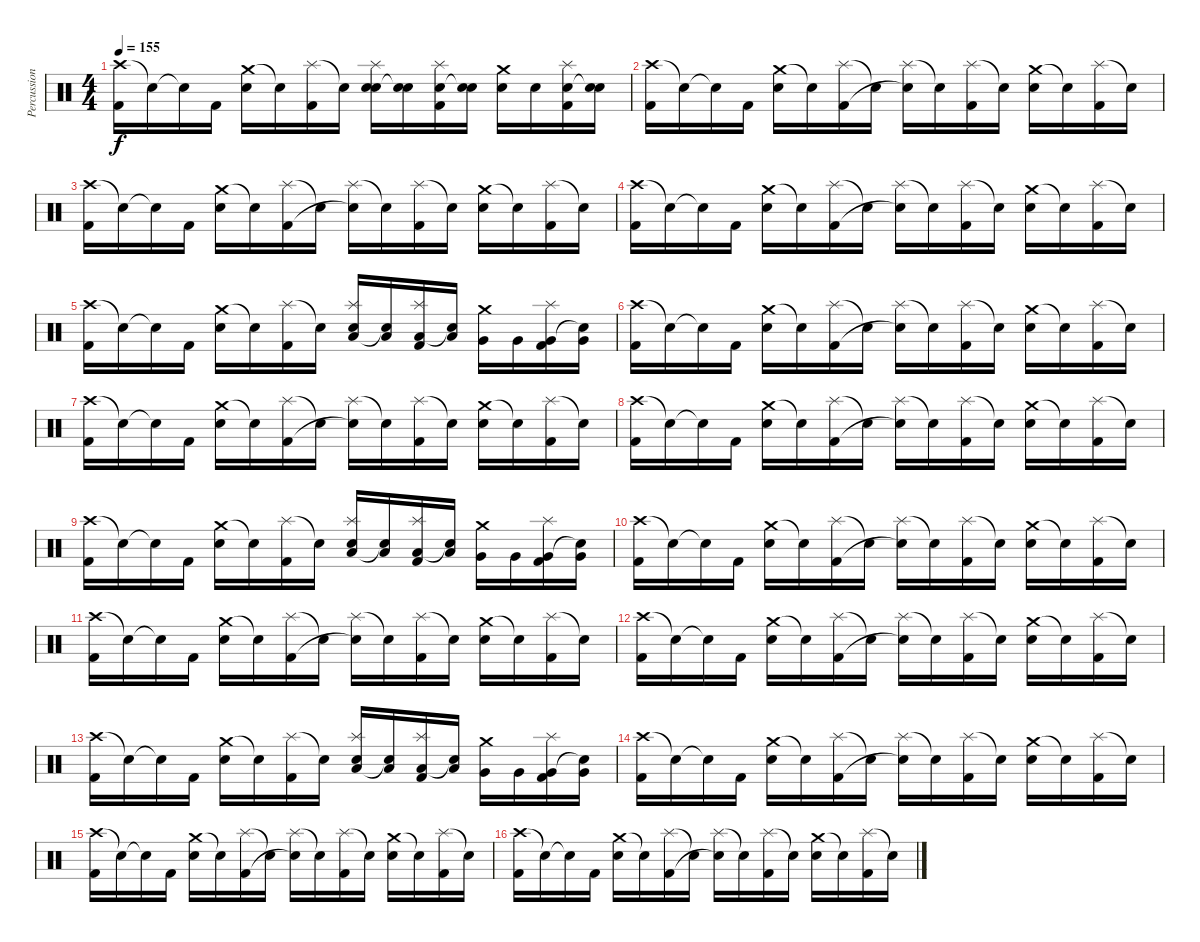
\track ("Percussion" "Percussion") {instrument percussion}
\staff {score}
\articulation defaults
\ts (4 4)
\tempo 155
\clef neutral
\ks c
("Crash high (hit)" "Kick (hit) 2").16{dy f} "Snare (hit)"{t}.16 "Snare (hit)"{t}.16 "Kick (hit) 2".16 ("Crash medium (hit)" "Snare (hit) 2").16 "Snare (hit)"{t}.16 ("Splash (hit)" "Kick (hit) 2").16 "Snare (hit)"{t}.16 ("Splash (hit)" "Snare (hit) 2" "Snare (hit)").16 ("Snare (hit) 2" "Snare (hit)"{t}).16 ("Splash (hit)" "Snare (hit) 2" "Kick (hit) 2").16 ("Snare (hit) 2" "Snare (hit)"{t}).16 ("Crash medium (hit)" "Snare (hit) 2").16 "Snare (hit) 2".16 ("Splash (hit)" "Snare (hit) 2" "Kick (hit) 2").16 ("Snare (hit) 2" "Snare (hit)"{t}).16 |
("Crash high (hit)" "Kick (hit) 2").16 "Snare (hit)"{t}.16 "Snare (hit)"{t}.16 "Kick (hit) 2".16 ("Crash medium (hit)" "Snare (hit) 2").16 "Snare (hit)"{t}.16 ("Splash (hit)" "Kick (hit) 2").16 "Snare (hit)"{t}.16 ("Splash (hit)" "Snare (hit)"{t}).16 "Snare (hit)"{t}.16 ("Splash (hit)" "Kick (hit) 2").16 "Snare (hit)"{t}.16 ("Crash medium (hit)" "Snare (hit) 2").16 "Snare (hit)"{t}.16 ("Splash (hit)" "Kick (hit) 2").16 "Snare (hit)"{t}.16 |
("Crash high (hit)" "Kick (hit) 2").16 "Snare (hit)"{t}.16 "Snare (hit)"{t}.16 "Kick (hit) 2".16 ("Crash medium (hit)" "Snare (hit) 2").16 "Snare (hit)"{t}.16 ("Splash (hit)" "Kick (hit) 2").16 "Snare (hit)"{t}.16 ("Splash (hit)" "Snare (hit)"{t}).16 "Snare (hit)"{t}.16 ("Splash (hit)" "Kick (hit) 2").16 "Snare (hit)"{t}.16 ("Crash medium (hit)" "Snare (hit) 2").16 "Snare (hit)"{t}.16 ("Splash (hit)" "Kick (hit) 2").16 "Snare (hit)"{t}.16 |
("Crash high (hit)" "Kick (hit) 2").16 "Snare (hit)"{t}.16 "Snare (hit)"{t}.16 "Kick (hit) 2".16 ("Crash medium (hit)" "Snare (hit) 2").16 "Snare (hit)"{t}.16 ("Splash (hit)" "Kick (hit) 2").16 "Snare (hit)"{t}.16 ("Splash (hit)" "Snare (hit)"{t}).16 "Snare (hit)"{t}.16 ("Splash (hit)" "Kick (hit) 2").16 "Snare (hit)"{t}.16 ("Crash medium (hit)" "Snare (hit) 2").16 "Snare (hit)"{t}.16 ("Splash (hit)" "Kick (hit) 2").16 "Snare (hit)"{t}.16 |
("Crash high (hit)" "Kick (hit) 2").16 "Snare (hit)"{t}.16 "Snare (hit)"{t}.16 "Kick (hit) 2".16 ("Crash medium (hit)" "Snare (hit) 2").16 "Snare (hit)"{t}.16 ("Splash (hit)" "Kick (hit) 2").16 "Snare (hit)"{t}.16 ("Splash (hit)" "Low Tom (hit)" "Snare (hit)").16 ("Low Tom (hit)" "Snare (hit)"{t}).16 ("Splash (hit)" "Low Tom (hit)" "Kick (hit) 2").16 ("Low Tom (hit)" "Snare (hit)"{t}).16 ("Crash medium (hit)" "Very Low Tom (hit)").16 "Very Low Tom (hit)".16 ("Splash (hit)" "Very Low Tom (hit)" "Kick (hit) 2").16 ("Very Low Tom (hit)" "Snare (hit)"{t}).16 |
("Crash high (hit)" "Kick (hit) 2").16 "Snare (hit)"{t}.16 "Snare (hit)"{t}.16 "Kick (hit) 2".16 ("Crash medium (hit)" "Snare (hit) 2").16 "Snare (hit)"{t}.16 ("Splash (hit)" "Kick (hit) 2").16 "Snare (hit)"{t}.16 ("Splash (hit)" "Snare (hit)"{t}).16 "Snare (hit)"{t}.16 ("Splash (hit)" "Kick (hit) 2").16 "Snare (hit)"{t}.16 ("Crash medium (hit)" "Snare (hit) 2").16 "Snare (hit)"{t}.16 ("Splash (hit)" "Kick (hit) 2").16 "Snare (hit)"{t}.16 |
("Crash high (hit)" "Kick (hit) 2").16 "Snare (hit)"{t}.16 "Snare (hit)"{t}.16 "Kick (hit) 2".16 ("Crash medium (hit)" "Snare (hit) 2").16 "Snare (hit)"{t}.16 ("Splash (hit)" "Kick (hit) 2").16 "Snare (hit)"{t}.16 ("Splash (hit)" "Snare (hit)"{t}).16 "Snare (hit)"{t}.16 ("Splash (hit)" "Kick (hit) 2").16 "Snare (hit)"{t}.16 ("Crash medium (hit)" "Snare (hit) 2").16 "Snare (hit)"{t}.16 ("Splash (hit)" "Kick (hit) 2").16 "Snare (hit)"{t}.16 |
("Crash high (hit)" "Kick (hit) 2").16 "Snare (hit)"{t}.16 "Snare (hit)"{t}.16 "Kick (hit) 2".16 ("Crash medium (hit)" "Snare (hit) 2").16 "Snare (hit)"{t}.16 ("Splash (hit)" "Kick (hit) 2").16 "Snare (hit)"{t}.16 ("Splash (hit)" "Snare (hit)"{t}).16 "Snare (hit)"{t}.16 ("Splash (hit)" "Kick (hit) 2").16 "Snare (hit)"{t}.16 ("Crash medium (hit)" "Snare (hit) 2").16 "Snare (hit)"{t}.16 ("Splash (hit)" "Kick (hit) 2").16 "Snare (hit)"{t}.16 |
("Crash high (hit)" "Kick (hit) 2").16 "Snare (hit)"{t}.16 "Snare (hit)"{t}.16 "Kick (hit) 2".16 ("Crash medium (hit)" "Snare (hit) 2").16 "Snare (hit)"{t}.16 ("Splash (hit)" "Kick (hit) 2").16 "Snare (hit)"{t}.16 ("Splash (hit)" "Low Tom (hit)" "Snare (hit)").16 ("Low Tom (hit)" "Snare (hit)"{t}).16 ("Splash (hit)" "Low Tom (hit)" "Kick (hit) 2").16 ("Low Tom (hit)" "Snare (hit)"{t}).16 ("Crash medium (hit)" "Very Low Tom (hit)").16 "Very Low Tom (hit)".16 ("Splash (hit)" "Very Low Tom (hit)" "Kick (hit) 2").16 ("Very Low Tom (hit)" "Snare (hit)"{t}).16 |
("Crash high (hit)" "Kick (hit) 2").16 "Snare (hit)"{t}.16 "Snare (hit)"{t}.16 "Kick (hit) 2".16 ("Crash medium (hit)" "Snare (hit) 2").16 "Snare (hit)"{t}.16 ("Splash (hit)" "Kick (hit) 2").16 "Snare (hit)"{t}.16 ("Splash (hit)" "Snare (hit)"{t}).16 "Snare (hit)"{t}.16 ("Splash (hit)" "Kick (hit) 2").16 "Snare (hit)"{t}.16 ("Crash medium (hit)" "Snare (hit) 2").16 "Snare (hit)"{t}.16 ("Splash (hit)" "Kick (hit) 2").16 "Snare (hit)"{t}.16 |
("Crash high (hit)" "Kick (hit) 2").16 "Snare (hit)"{t}.16 "Snare (hit)"{t}.16 "Kick (hit) 2".16 ("Crash medium (hit)" "Snare (hit) 2").16 "Snare (hit)"{t}.16 ("Splash (hit)" "Kick (hit) 2").16 "Snare (hit)"{t}.16 ("Splash (hit)" "Snare (hit)"{t}).16 "Snare (hit)"{t}.16 ("Splash (hit)" "Kick (hit) 2").16 "Snare (hit)"{t}.16 ("Crash medium (hit)" "Snare (hit) 2").16 "Snare (hit)"{t}.16 ("Splash (hit)" "Kick (hit) 2").16 "Snare (hit)"{t}.16 |
("Crash high (hit)" "Kick (hit) 2").16 "Snare (hit)"{t}.16 "Snare (hit)"{t}.16 "Kick (hit) 2".16 ("Crash medium (hit)" "Snare (hit) 2").16 "Snare (hit)"{t}.16 ("Splash (hit)" "Kick (hit) 2").16 "Snare (hit)"{t}.16 ("Splash (hit)" "Snare (hit)"{t}).16 "Snare (hit)"{t}.16 ("Splash (hit)" "Kick (hit) 2").16 "Snare (hit)"{t}.16 ("Crash medium (hit)" "Snare (hit) 2").16 "Snare (hit)"{t}.16 ("Splash (hit)" "Kick (hit) 2").16 "Snare (hit)"{t}.16 |
("Crash high (hit)" "Kick (hit) 2").16 "Snare (hit)"{t}.16 "Snare (hit)"{t}.16 "Kick (hit) 2".16 ("Crash medium (hit)" "Snare (hit) 2").16 "Snare (hit)"{t}.16 ("Splash (hit)" "Kick (hit) 2").16 "Snare (hit)"{t}.16 ("Splash (hit)" "Low Tom (hit)" "Snare (hit)").16 ("Low Tom (hit)" "Snare (hit)"{t}).16 ("Splash (hit)" "Low Tom (hit)" "Kick (hit) 2").16 ("Low Tom (hit)" "Snare (hit)"{t}).16 ("Crash medium (hit)" "Very Low Tom (hit)").16 "Very Low Tom (hit)".16 ("Splash (hit)" "Very Low Tom (hit)" "Kick (hit) 2").16 ("Very Low Tom (hit)" "Snare (hit)"{t}).16 |
("Crash high (hit)" "Kick (hit) 2").16 "Snare (hit)"{t}.16 "Snare (hit)"{t}.16 "Kick (hit) 2".16 ("Crash medium (hit)" "Snare (hit) 2").16 "Snare (hit)"{t}.16 ("Splash (hit)" "Kick (hit) 2").16 "Snare (hit)"{t}.16 ("Splash (hit)" "Snare (hit)"{t}).16 "Snare (hit)"{t}.16 ("Splash (hit)" "Kick (hit) 2").16 "Snare (hit)"{t}.16 ("Crash medium (hit)" "Snare (hit) 2").16 "Snare (hit)"{t}.16 ("Splash (hit)" "Kick (hit) 2").16 "Snare (hit)"{t}.16 |
("Crash high (hit)" "Kick (hit) 2").16 "Snare (hit)"{t}.16 "Snare (hit)"{t}.16 "Kick (hit) 2".16 ("Crash medium (hit)" "Snare (hit) 2").16 "Snare (hit)"{t}.16 ("Splash (hit)" "Kick (hit) 2").16 "Snare (hit)"{t}.16 ("Splash (hit)" "Snare (hit)"{t}).16 "Snare (hit)"{t}.16 ("Splash (hit)" "Kick (hit) 2").16 "Snare (hit)"{t}.16 ("Crash medium (hit)" "Snare (hit) 2").16 "Snare (hit)"{t}.16 ("Splash (hit)" "Kick (hit) 2").16 "Snare (hit)"{t}.16 |
("Crash high (hit)" "Kick (hit) 2").16 "Snare (hit)"{t}.16 "Snare (hit)"{t}.16 "Kick (hit) 2".16 ("Crash medium (hit)" "Snare (hit) 2").16 "Snare (hit)"{t}.16 ("Splash (hit)" "Kick (hit) 2").16 "Snare (hit)"{t}.16 ("Splash (hit)" "Snare (hit)"{t}).16 "Snare (hit)"{t}.16 ("Splash (hit)" "Kick (hit) 2").16 "Snare (hit)"{t}.16 ("Crash medium (hit)" "Snare (hit) 2").16 "Snare (hit)"{t}.16 ("Splash (hit)" "Kick (hit) 2").16 "Snare (hit)"{t}.16
